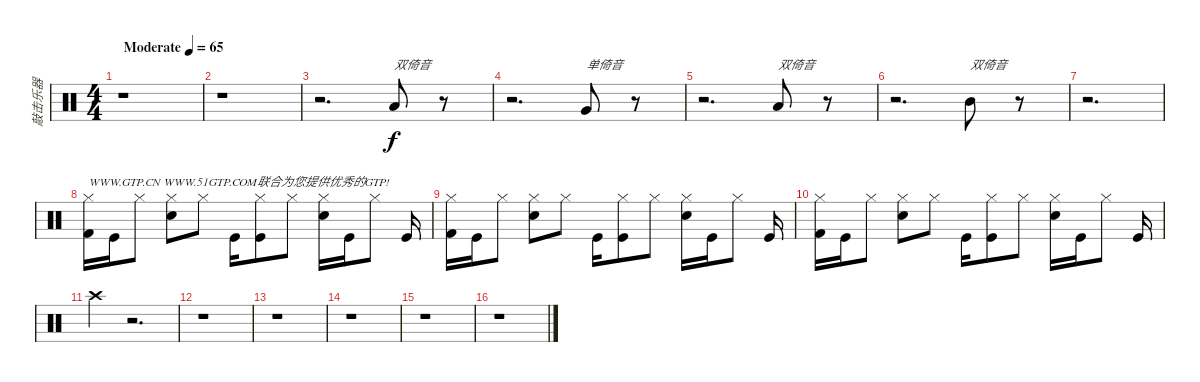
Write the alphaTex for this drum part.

\track ("敲击乐器" "敲击乐器") {instrument percussion}
\staff {score}
\articulation defaults
\ts (4 4)
\tempo (65 "Moderate")
\clef neutral
\ks c
r.1{dy f} |
r.1 |
r.2{d} "Low Floor Tom (hit)".8{txt "双倚音"} r.8 |
r.2{d} "Very Low Tom (hit)".8{txt "单倚音"} r.8 |
r.2{d} "Low Tom (hit)".8{txt "双倚音"} r.8 |
r.2{d} "Mid Tom (hit)".8{txt "双倚音"} r.8 |
r.2{d} |
("Kick (hit) 2" "Hi-Hat (closed)").16{txt "WWW.GTP.CN WWW.51GTP.COM联合为您提供优秀的GTP!"} "Kick (hit)".16 "Hi-Hat (closed)".8 ("Hi-Hat (closed)" "Electric Snare (hit)").8 "Hi-Hat (closed)".8 "Kick (hit)".16 ("Kick (hit)" "Hi-Hat (closed)").8 "Hi-Hat (closed)".8 ("Hi-Hat (closed)" "Electric Snare (hit)").16 "Kick (hit)".16 "Hi-Hat (closed)".8 "Kick (hit)".16 |
("Kick (hit) 2" "Hi-Hat (closed)").16 "Kick (hit)".16 "Hi-Hat (closed)".8 ("Hi-Hat (closed)" "Electric Snare (hit)").8 "Hi-Hat (closed)".8 "Kick (hit)".16 ("Kick (hit)" "Hi-Hat (closed)").8 "Hi-Hat (closed)".8 ("Hi-Hat (closed)" "Electric Snare (hit)").16 "Kick (hit)".16 "Hi-Hat (closed)".8 "Kick (hit)".16 |
("Kick (hit) 2" "Hi-Hat (closed)").16 "Kick (hit)".16 "Hi-Hat (closed)".8 ("Hi-Hat (closed)" "Electric Snare (hit)").8 "Hi-Hat (closed)".8 "Kick (hit)".16 ("Kick (hit)" "Hi-Hat (closed)").8 "Hi-Hat (closed)".8 ("Hi-Hat (closed)" "Electric Snare (hit)").16 "Kick (hit)".16 "Hi-Hat (closed)".8 "Kick (hit)".16 |
"Crash high (hit)".4 r.2{d} |
r.1 |
r.1 |
r.1 |
r.1 |
r.1
